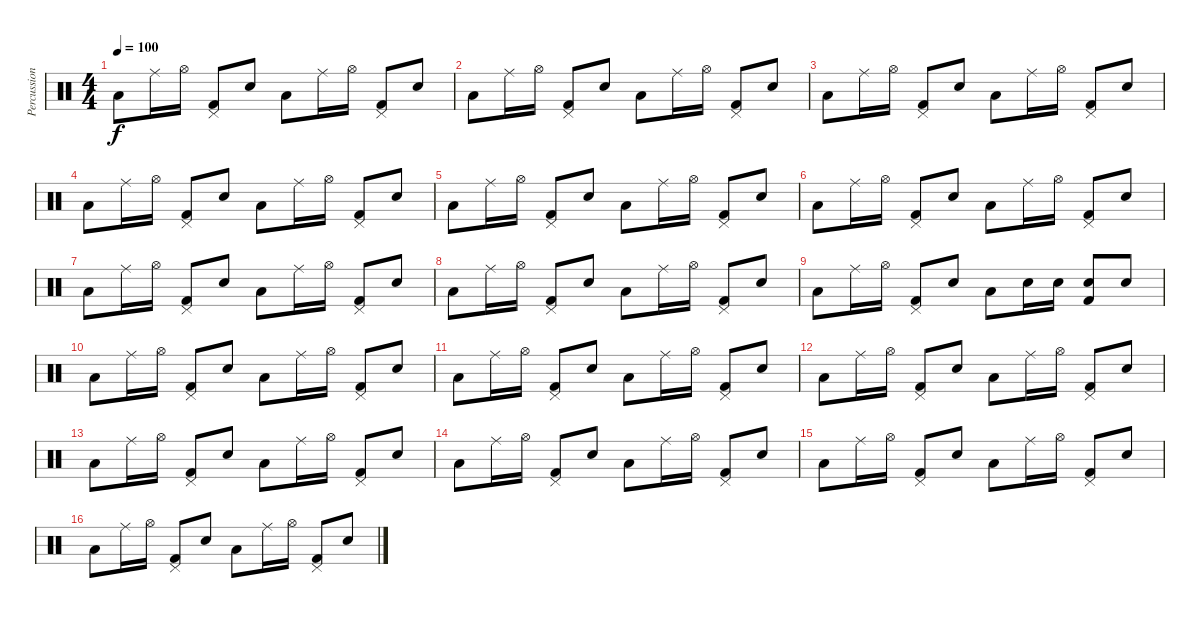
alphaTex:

\track ("Percussion" "Percussion") {instrument percussion}
\staff {score}
\articulation defaults
\ts (4 4)
\tempo 100
\clef neutral
\ks c "Low Tom (hit)".8{dy f} "Ride (middle)".16 "Hi-Hat (open)".16
("Pedal Hi-Hat (hit)" "Kick (hit) 2").8 "Electric Snare (hit)".8 "Low Tom (hit)".8 "Ride (middle)".16 "Hi-Hat (open)".16 ("Pedal Hi-Hat (hit)" "Kick (hit) 2").8 "Electric Snare (hit)".8 |
"Low Tom (hit)".8 "Ride (middle)".16 "Hi-Hat (open)".16 ("Pedal Hi-Hat (hit)" "Kick (hit) 2").8 "Electric Snare (hit)".8 "Low Tom (hit)".8 "Ride (middle)".16 "Hi-Hat (open)".16 ("Pedal Hi-Hat (hit)" "Kick (hit) 2").8 "Electric Snare (hit)".8 |
"Low Tom (hit)".8 "Ride (middle)".16 "Hi-Hat (open)".16 ("Pedal Hi-Hat (hit)" "Kick (hit) 2").8 "Electric Snare (hit)".8 "Low Tom (hit)".8 "Ride (middle)".16 "Hi-Hat (open)".16 ("Pedal Hi-Hat (hit)" "Kick (hit) 2").8 "Electric Snare (hit)".8 |
"Low Tom (hit)".8 "Ride (middle)".16 "Hi-Hat (open)".16 ("Pedal Hi-Hat (hit)" "Kick (hit) 2").8 "Electric Snare (hit)".8 "Low Tom (hit)".8 "Ride (middle)".16 "Hi-Hat (open)".16 ("Pedal Hi-Hat (hit)" "Kick (hit) 2").8 "Electric Snare (hit)".8 |
"Low Tom (hit)".8 "Ride (middle)".16 "Hi-Hat (open)".16 ("Pedal Hi-Hat (hit)" "Kick (hit) 2").8 "Electric Snare (hit)".8 "Low Tom (hit)".8 "Ride (middle)".16 "Hi-Hat (open)".16 ("Pedal Hi-Hat (hit)" "Kick (hit) 2").8 "Electric Snare (hit)".8 |
"Low Tom (hit)".8 "Ride (middle)".16 "Hi-Hat (open)".16 ("Pedal Hi-Hat (hit)" "Kick (hit) 2").8 "Electric Snare (hit)".8 "Low Tom (hit)".8 "Ride (middle)".16 "Hi-Hat (open)".16 ("Pedal Hi-Hat (hit)" "Kick (hit) 2").8 "Electric Snare (hit)".8 |
"Low Tom (hit)".8 "Ride (middle)".16 "Hi-Hat (open)".16 ("Pedal Hi-Hat (hit)" "Kick (hit) 2").8 "Electric Snare (hit)".8 "Low Tom (hit)".8 "Ride (middle)".16 "Hi-Hat (open)".16 ("Pedal Hi-Hat (hit)" "Kick (hit) 2").8 "Electric Snare (hit)".8 |
"Low Tom (hit)".8 "Ride (middle)".16 "Hi-Hat (open)".16 ("Pedal Hi-Hat (hit)" "Kick (hit) 2").8 "Electric Snare (hit)".8 "Low Tom (hit)".8 "Ride (middle)".16 "Hi-Hat (open)".16 ("Pedal Hi-Hat (hit)" "Kick (hit) 2").8 "Electric Snare (hit)".8 |
"Low Tom (hit)".8 "Ride (middle)".16 "Hi-Hat (open)".16 ("Pedal Hi-Hat (hit)" "Kick (hit) 2").8 "Electric Snare (hit)".8 "Low Tom (hit)".8 "Electric Snare (hit)".16 "Electric Snare (hit)".16 ("Electric Snare (hit)" "Kick (hit) 2").8 "Electric Snare (hit)".8 |
"Low Tom (hit)".8 "Ride (middle)".16 "Hi-Hat (open)".16 ("Pedal Hi-Hat (hit)" "Kick (hit) 2").8 "Electric Snare (hit)".8 "Low Tom (hit)".8 "Ride (middle)".16 "Hi-Hat (open)".16 ("Pedal Hi-Hat (hit)" "Kick (hit) 2").8 "Electric Snare (hit)".8 |
"Low Tom (hit)".8 "Ride (middle)".16 "Hi-Hat (open)".16 ("Pedal Hi-Hat (hit)" "Kick (hit) 2").8 "Electric Snare (hit)".8 "Low Tom (hit)".8 "Ride (middle)".16 "Hi-Hat (open)".16 ("Pedal Hi-Hat (hit)" "Kick (hit) 2").8 "Electric Snare (hit)".8 |
"Low Tom (hit)".8 "Ride (middle)".16 "Hi-Hat (open)".16 ("Pedal Hi-Hat (hit)" "Kick (hit) 2").8 "Electric Snare (hit)".8 "Low Tom (hit)".8 "Ride (middle)".16 "Hi-Hat (open)".16 ("Pedal Hi-Hat (hit)" "Kick (hit) 2").8 "Electric Snare (hit)".8 |
"Low Tom (hit)".8 "Ride (middle)".16 "Hi-Hat (open)".16 ("Pedal Hi-Hat (hit)" "Kick (hit) 2").8 "Electric Snare (hit)".8 "Low Tom (hit)".8 "Ride (middle)".16 "Hi-Hat (open)".16 ("Pedal Hi-Hat (hit)" "Kick (hit) 2").8 "Electric Snare (hit)".8 |
"Low Tom (hit)".8 "Ride (middle)".16 "Hi-Hat (open)".16 ("Pedal Hi-Hat (hit)" "Kick (hit) 2").8 "Electric Snare (hit)".8 "Low Tom (hit)".8 "Ride (middle)".16 "Hi-Hat (open)".16 ("Pedal Hi-Hat (hit)" "Kick (hit) 2").8 "Electric Snare (hit)".8 |
"Low Tom (hit)".8 "Ride (middle)".16 "Hi-Hat (open)".16 ("Pedal Hi-Hat (hit)" "Kick (hit) 2").8 "Electric Snare (hit)".8 "Low Tom (hit)".8 "Ride (middle)".16 "Hi-Hat (open)".16 ("Pedal Hi-Hat (hit)" "Kick (hit) 2").8 "Electric Snare (hit)".8 |
"Low Tom (hit)".8 "Ride (middle)".16 "Hi-Hat (open)".16 ("Pedal Hi-Hat (hit)" "Kick (hit) 2").8 "Electric Snare (hit)".8 "Low Tom (hit)".8 "Ride (middle)".16 "Hi-Hat (open)".16 ("Pedal Hi-Hat (hit)" "Kick (hit) 2").8 "Electric Snare (hit)".8
